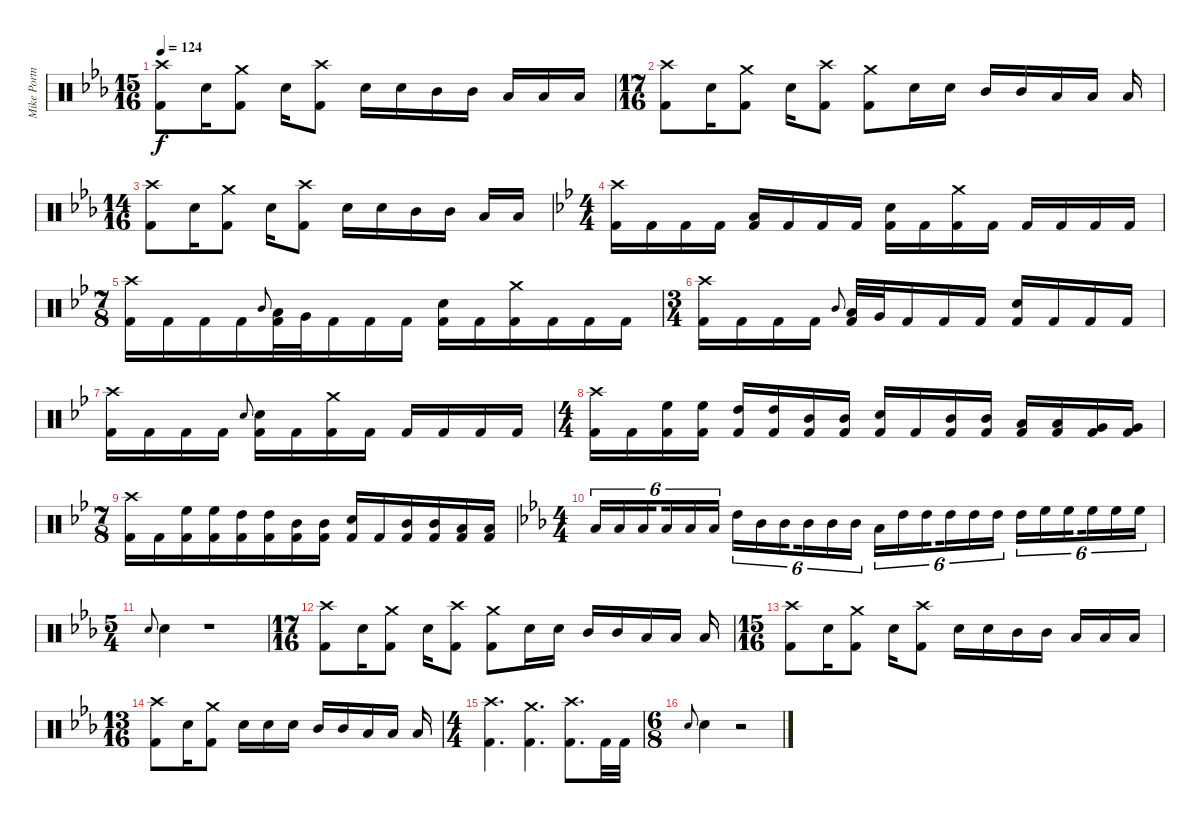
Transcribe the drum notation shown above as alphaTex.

\track ("Mike Portnoy" "Mike Portn") {instrument percussion}
\staff {score}
\articulation defaults
\ts (15 16)
\tempo 124
\clef neutral
\ks eb
("Crash high (hit)" "Kick (hit) 2").8{dy f} "Snare (hit) 2".16 ("Crash medium (hit)" "Kick (hit) 2").8 "Snare (hit) 2".16 ("Crash high (hit)" "Kick (hit) 2").8 "Snare (hit) 2".16 "Snare (hit) 2".16 "Mid Tom (hit)".16 "Mid Tom (hit)".16 "Low Tom (hit)".16 "Low Tom (hit)".16 "Low Tom (hit)".16 |
\ts (17 16)
("Crash high (hit)" "Kick (hit) 2").8 "Snare (hit) 2".16 ("Crash medium (hit)" "Kick (hit) 2").8 "Snare (hit) 2".16 ("Crash high (hit)" "Kick (hit) 2").8 ("Crash medium (hit)" "Kick (hit) 2").8 "Snare (hit) 2".16 "Snare (hit) 2".16 "Mid Tom (hit)".16 "Mid Tom (hit)".16 "Low Tom (hit)".16 "Low Tom (hit)".16 "Low Tom (hit)".16 |
\ts (14 16)
("Crash high (hit)" "Kick (hit) 2").8 "Snare (hit) 2".16 ("Crash medium (hit)" "Kick (hit) 2").8 "Snare (hit) 2".16 ("Crash high (hit)" "Kick (hit) 2").8 "Snare (hit) 2".16 "Snare (hit) 2".16 "Mid Tom (hit)".16 "Mid Tom (hit)".16 "Low Tom (hit)".16 "Low Tom (hit)".16 |
\ts (4 4)
\ks bb
("Crash high (hit)" "Kick (hit) 2").16 "Kick (hit) 2".16 "Kick (hit) 2".16 "Kick (hit) 2".16 ("Low Tom (hit)" "Kick (hit) 2").16 "Kick (hit) 2".16 "Kick (hit) 2".16 "Kick (hit) 2".16 ("Snare (hit) 2" "Kick (hit) 2").16 "Kick (hit) 2".16 ("Crash medium (hit)" "Kick (hit) 2").16 "Kick (hit) 2".16 "Kick (hit) 2".16 "Kick (hit) 2".16 "Kick (hit) 2".16 "Kick (hit) 2".16 |
\ts (7 8)
("Crash high (hit)" "Kick (hit) 2").16 "Kick (hit) 2".16 "Kick (hit) 2".16 "Kick (hit) 2".16 "Mid Tom (hit)".8{gr onbeat} ("Low Tom (hit)" "Kick (hit) 2").32 "Very Low Tom (hit)".32 "Kick (hit) 2".16 "Kick (hit) 2".16 "Kick (hit) 2".16 ("Snare (hit) 2" "Kick (hit) 2").16 "Kick (hit) 2".16 ("Crash medium (hit)" "Kick (hit) 2").16 "Kick (hit) 2".16 "Kick (hit) 2".16 "Kick (hit) 2".16 |
\ts (3 4)
("Crash high (hit)" "Kick (hit) 2").16 "Kick (hit) 2".16 "Kick (hit) 2".16 "Kick (hit) 2".16 "Mid Tom (hit)".8{gr onbeat} ("Low Tom (hit)" "Kick (hit) 2").32 "Very Low Tom (hit)".32 "Kick (hit) 2".16 "Kick (hit) 2".16 "Kick (hit) 2".16 ("Snare (hit) 2" "Kick (hit) 2").16 "Kick (hit) 2".16 "Kick (hit) 2".16 "Kick (hit) 2".16 |
("Crash high (hit)" "Kick (hit) 2").16 "Kick (hit) 2".16 "Kick (hit) 2".16 "Kick (hit) 2".16 "Snare (hit) 2".8{gr onbeat} ("Snare (hit) 2" "Kick (hit) 2").16 "Kick (hit) 2".16 ("Crash medium (hit)" "Kick (hit) 2").16 "Kick (hit) 2".16 "Kick (hit) 2".16 "Kick (hit) 2".16 "Kick (hit) 2".16 "Kick (hit) 2".16 |
\ts (4 4)
("Crash high (hit)" "Kick (hit) 2").16 "Kick (hit) 2".16 ("High Floor Tom (hit)" "Kick (hit) 2").16 ("High Floor Tom (hit)" "Kick (hit) 2").16 ("High Tom (hit)" "Kick (hit) 2").16 ("High Tom (hit)" "Kick (hit) 2").16 ("Mid Tom (hit)" "Kick (hit) 2").16 ("Mid Tom (hit)" "Kick (hit) 2").16 ("Snare (hit) 2" "Kick (hit) 2").16 "Kick (hit) 2".16 ("Mid Tom (hit)" "Kick (hit) 2").16 ("Mid Tom (hit)" "Kick (hit) 2").16 ("Low Tom (hit)" "Kick (hit) 2").16 ("Low Tom (hit)" "Kick (hit) 2").16 ("Very Low Tom (hit)" "Kick (hit) 2").16 ("Very Low Tom (hit)" "Kick (hit) 2").16 |
\ts (7 8)
("Crash high (hit)" "Kick (hit) 2").16 "Kick (hit) 2".16 ("High Floor Tom (hit)" "Kick (hit) 2").16 ("High Floor Tom (hit)" "Kick (hit) 2").16 ("High Tom (hit)" "Kick (hit) 2").16 ("High Tom (hit)" "Kick (hit) 2").16 ("Mid Tom (hit)" "Kick (hit) 2").16 ("Mid Tom (hit)" "Kick (hit) 2").16 ("Snare (hit) 2" "Kick (hit) 2").16 "Kick (hit) 2".16 ("Mid Tom (hit)" "Kick (hit) 2").16 ("Mid Tom (hit)" "Kick (hit) 2").16 ("Low Tom (hit)" "Kick (hit) 2").16 ("Low Tom (hit)" "Kick (hit) 2").16 |
\ts (4 4)
\ks eb "Low Tom (hit)".16{tu (6 4)} "Low Tom (hit)".16{tu (6 4)} "Low Tom (hit)".16{tu (6 4) beam splitsecondary} "Low Tom (hit)".16{tu (6 4)} "Low Tom (hit)".16{tu (6 4)} "Low Tom (hit)".16{tu (6 4)} "High Tom (hit)".16{tu (6 4)} "Mid Tom (hit)".16{tu (6 4)} "Mid Tom (hit)".16{tu (6 4) beam splitsecondary} "Mid Tom (hit)".16{tu (6 4)} "Mid Tom (hit)".16{tu (6 4)} "Mid Tom (hit)".16{tu (6 4)} "Low Tom (hit)".16{tu (6 4)} "High Tom (hit)".16{tu (6 4)} "High Tom (hit)".16{tu (6 4) beam splitsecondary} "High Tom (hit)".16{tu (6 4)} "High Tom (hit)".16{tu (6 4)} "High Tom (hit)".16{tu (6 4)} "High Tom (hit)".16{tu (6 4)} "High Floor Tom (hit)".16{tu (6 4)} "High Floor Tom (hit)".16{tu (6 4) beam splitsecondary} "High Floor Tom (hit)".16{tu (6 4)} "High Floor Tom (hit)".16{tu (6 4)} "High Floor Tom (hit)".16{tu (6 4)}
|
\ts (5 4)
"Snare (hit) 2".8{gr onbeat} "Snare (hit) 2".4 r.1 |
\ts (17 16)
("Crash high (hit)" "Kick (hit) 2").8 "Snare (hit) 2".16 ("Crash medium (hit)" "Kick (hit) 2").8 "Snare (hit) 2".16 ("Crash high (hit)" "Kick (hit) 2").8 ("Crash medium (hit)" "Kick (hit) 2").8 "Snare (hit) 2".16 "Snare (hit) 2".16 "Mid Tom (hit)".16 "Mid Tom (hit)".16 "Low Tom (hit)".16 "Low Tom (hit)".16 "Low Tom (hit)".16 |
\ts (15 16)
("Crash high (hit)" "Kick (hit) 2").8 "Snare (hit) 2".16 ("Crash medium (hit)" "Kick (hit) 2").8 "Snare (hit) 2".16 ("Crash high (hit)" "Kick (hit) 2").8 "Snare (hit) 2".16 "Snare (hit) 2".16 "Mid Tom (hit)".16 "Mid Tom (hit)".16 "Low Tom (hit)".16 "Low Tom (hit)".16 "Low Tom (hit)".16 |
\ts (13 16)
("Crash high (hit)" "Kick (hit) 2").8 "Snare (hit) 2".16 ("Crash medium (hit)" "Kick (hit) 2").8 "Snare (hit) 2".16 "Snare (hit) 2".16 "Snare (hit) 2".16 "Mid Tom (hit)".16 "Mid Tom (hit)".16 "Low Tom (hit)".16 "Low Tom (hit)".16 "Low Tom (hit)".16 |
\ts (4 4)
("Crash high (hit)" "Kick (hit) 2").4{d} ("Crash medium (hit)" "Kick (hit) 2").4{d} ("Crash high (hit)" "Kick (hit) 2").8{d} "Kick (hit) 2".32 "Kick (hit) 2".32 |
\ts (6 8)
"Snare (hit) 2".8{gr onbeat} "Snare (hit) 2".4 r.2
